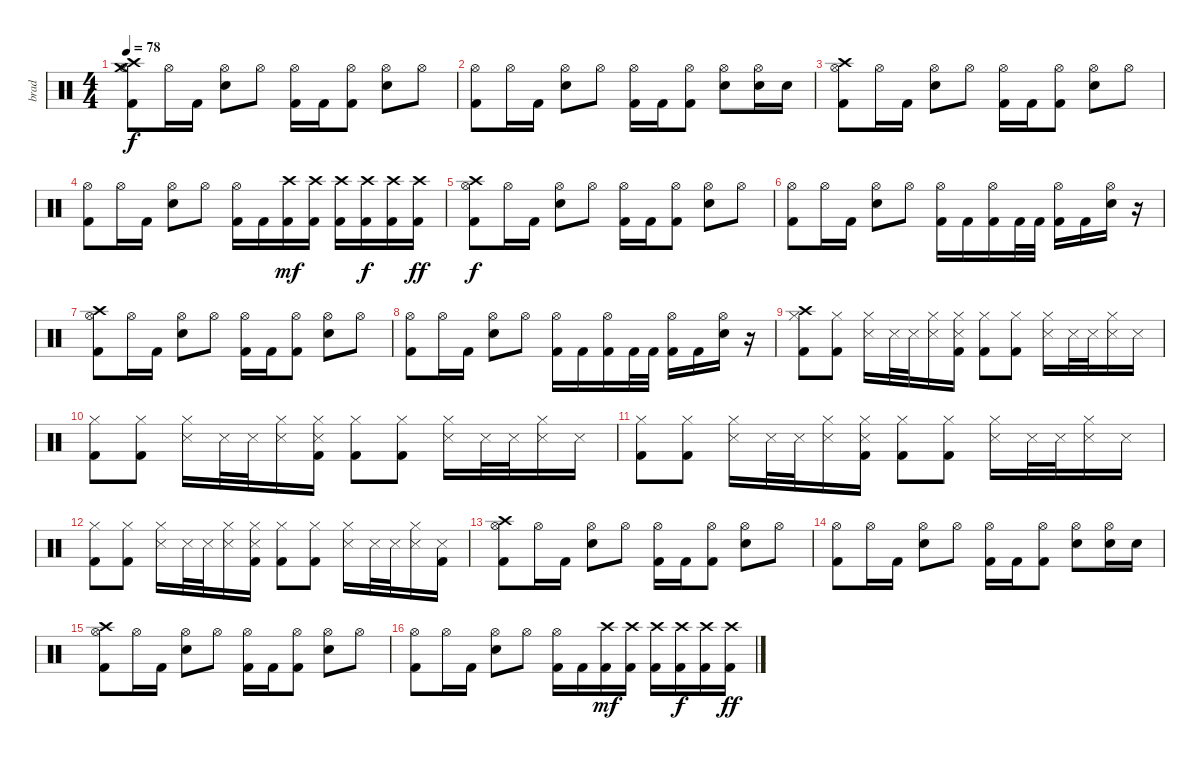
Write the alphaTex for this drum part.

\track ("brad" "brad") {instrument percussion}
\staff {score}
\articulation defaults
\ts (4 4)
\tempo 78
\clef neutral
\ks c
("Crash medium (hit)" "Crash high (hit)" "Hi-Hat (open)" "Kick (hit) 2").8{dy f} "Hi-Hat (open)".16 "Kick (hit) 2".16 ("Hi-Hat (open)" "Electric Snare (hit)").8 "Hi-Hat (open)".8 ("Hi-Hat (open)" "Kick (hit) 2").16 "Kick (hit) 2".16 ("Hi-Hat (open)" "Kick (hit) 2").8 ("Hi-Hat (open)" "Electric Snare (hit)").8 "Hi-Hat (open)".8 |
("Hi-Hat (open)" "Kick (hit) 2").8 "Hi-Hat (open)".16 "Kick (hit) 2".16 ("Hi-Hat (open)" "Electric Snare (hit)").8 "Hi-Hat (open)".8 ("Hi-Hat (open)" "Kick (hit) 2").16 "Kick (hit) 2".16 ("Hi-Hat (open)" "Kick (hit) 2").8 ("Hi-Hat (open)" "Electric Snare (hit)").8 ("Hi-Hat (open)" "Electric Snare (hit)").16 "Electric Snare (hit)".16 |
("Crash high (hit)" "Hi-Hat (open)" "Kick (hit) 2").8 "Hi-Hat (open)".16 "Kick (hit) 2".16 ("Hi-Hat (open)" "Electric Snare (hit)").8 "Hi-Hat (open)".8 ("Hi-Hat (open)" "Kick (hit) 2").16 "Kick (hit) 2".16 ("Hi-Hat (open)" "Kick (hit) 2").8 ("Hi-Hat (open)" "Electric Snare (hit)").8 "Hi-Hat (open)".8 |
("Hi-Hat (open)" "Kick (hit) 2").8 "Hi-Hat (open)".16 "Kick (hit) 2".16 ("Hi-Hat (open)" "Electric Snare (hit)").8 "Hi-Hat (open)".8 ("Hi-Hat (open)" "Kick (hit) 2").16 "Kick (hit) 2".16 ("Crash high (hit)" "Kick (hit) 2").16{dy mf} ("Crash high (hit)" "Kick (hit) 2").16 ("Crash high (hit)" "Kick (hit) 2").16 ("Crash high (hit)" "Kick (hit) 2").16{dy f} ("Crash high (hit)" "Kick (hit) 2").16 ("Crash high (hit)" "Kick (hit) 2").16{dy ff} |
("Crash high (hit)" "Hi-Hat (open)" "Kick (hit) 2").8{dy f} "Hi-Hat (open)".16 "Kick (hit) 2".16 ("Hi-Hat (open)" "Electric Snare (hit)").8 "Hi-Hat (open)".8 ("Hi-Hat (open)" "Kick (hit) 2").16 "Kick (hit) 2".16 ("Hi-Hat (open)" "Kick (hit) 2").8 ("Hi-Hat (open)" "Electric Snare (hit)").8 "Hi-Hat (open)".8 |
("Hi-Hat (open)" "Kick (hit) 2").8 "Hi-Hat (open)".16 "Kick (hit) 2".16 ("Hi-Hat (open)" "Electric Snare (hit)").8 "Hi-Hat (open)".8 ("Hi-Hat (open)" "Kick (hit) 2").16 "Kick (hit) 2".16 ("Hi-Hat (open)" "Kick (hit) 2").16 "Kick (hit) 2".32 "Kick (hit) 2".32 ("Hi-Hat (open)" "Kick (hit) 2").16 "Kick (hit) 2".16 ("Hi-Hat (open)" "Electric Snare (hit)").16 r.16 |
("Crash high (hit)" "Hi-Hat (open)" "Kick (hit) 2").8 "Hi-Hat (open)".16 "Kick (hit) 2".16 ("Hi-Hat (open)" "Electric Snare (hit)").8 "Hi-Hat (open)".8 ("Hi-Hat (open)" "Kick (hit) 2").16 "Kick (hit) 2".16 ("Hi-Hat (open)" "Kick (hit) 2").8 ("Hi-Hat (open)" "Electric Snare (hit)").8 "Hi-Hat (open)".8 |
("Hi-Hat (open)" "Kick (hit) 2").8 "Hi-Hat (open)".16 "Kick (hit) 2".16 ("Hi-Hat (open)" "Electric Snare (hit)").8 "Hi-Hat (open)".8 ("Hi-Hat (open)" "Kick (hit) 2").16 "Kick (hit) 2".16 ("Hi-Hat (open)" "Kick (hit) 2").16 "Kick (hit) 2".32 "Kick (hit) 2".32 ("Hi-Hat (open)" "Kick (hit) 2").16 "Kick (hit) 2".16 ("Hi-Hat (open)" "Electric Snare (hit)").16 r.16 |
("Crash high (hit)" "Hi-Hat (closed)" "Kick (hit) 2").8 ("Hi-Hat (closed)" "Kick (hit) 2").8 ("Hi-Hat (closed)" "Snare (side stick) 3").16 "Snare (side stick) 3".32 "Snare (side stick) 3".32 ("Hi-Hat (closed)" "Snare (side stick) 3").16 ("Hi-Hat (closed)" "Snare (side stick) 3" "Kick (hit) 2").16 ("Hi-Hat (closed)" "Kick (hit) 2").8 ("Hi-Hat (closed)" "Kick (hit) 2").8 ("Hi-Hat (closed)" "Snare (side stick) 3").16 "Snare (side stick) 3".32 "Snare (side stick) 3".32 ("Hi-Hat (closed)" "Snare (side stick) 3").16 "Snare (side stick) 3".16 |
("Hi-Hat (closed)" "Kick (hit) 2").8 ("Hi-Hat (closed)" "Kick (hit) 2").8 ("Hi-Hat (closed)" "Snare (side stick) 3").16 "Snare (side stick) 3".32 "Snare (side stick) 3".32 ("Hi-Hat (closed)" "Snare (side stick) 3").16 ("Hi-Hat (closed)" "Snare (side stick) 3" "Kick (hit) 2").16 ("Hi-Hat (closed)" "Kick (hit) 2").8 ("Hi-Hat (closed)" "Kick (hit) 2").8 ("Hi-Hat (closed)" "Snare (side stick) 3").16 "Snare (side stick) 3".32 "Snare (side stick) 3".32 ("Hi-Hat (closed)" "Snare (side stick) 3").16 "Snare (side stick) 3".16 |
("Hi-Hat (closed)" "Kick (hit) 2").8 ("Hi-Hat (closed)" "Kick (hit) 2").8 ("Hi-Hat (closed)" "Snare (side stick) 3").16 "Snare (side stick) 3".32 "Snare (side stick) 3".32 ("Hi-Hat (closed)" "Snare (side stick) 3").16 ("Hi-Hat (closed)" "Snare (side stick) 3" "Kick (hit) 2").16 ("Hi-Hat (closed)" "Kick (hit) 2").8 ("Hi-Hat (closed)" "Kick (hit) 2").8 ("Hi-Hat (closed)" "Snare (side stick) 3").16 "Snare (side stick) 3".32 "Snare (side stick) 3".32 ("Hi-Hat (closed)" "Snare (side stick) 3").16 "Snare (side stick) 3".16 |
("Hi-Hat (closed)" "Kick (hit) 2").8 ("Hi-Hat (closed)" "Kick (hit) 2").8 ("Hi-Hat (closed)" "Snare (side stick) 3").16 "Snare (side stick) 3".32 "Snare (side stick) 3".32 ("Hi-Hat (closed)" "Snare (side stick) 3").16 ("Hi-Hat (closed)" "Snare (side stick) 3" "Kick (hit) 2").16 ("Hi-Hat (closed)" "Kick (hit) 2").8 ("Hi-Hat (closed)" "Kick (hit) 2").8 ("Hi-Hat (closed)" "Snare (side stick) 3").16 "Snare (side stick) 3".32 "Snare (side stick) 3".32 ("Hi-Hat (closed)" "Snare (side stick) 3").16 ("Snare (side stick) 3" "Kick (hit) 2").16 |
("Crash high (hit)" "Hi-Hat (open)" "Kick (hit) 2").8 "Hi-Hat (open)".16 "Kick (hit) 2".16 ("Hi-Hat (open)" "Electric Snare (hit)").8 "Hi-Hat (open)".8 ("Hi-Hat (open)" "Kick (hit) 2").16 "Kick (hit) 2".16 ("Hi-Hat (open)" "Kick (hit) 2").8 ("Hi-Hat (open)" "Electric Snare (hit)").8 "Hi-Hat (open)".8 |
("Hi-Hat (open)" "Kick (hit) 2").8 "Hi-Hat (open)".16 "Kick (hit) 2".16 ("Hi-Hat (open)" "Electric Snare (hit)").8 "Hi-Hat (open)".8 ("Hi-Hat (open)" "Kick (hit) 2").16 "Kick (hit) 2".16 ("Hi-Hat (open)" "Kick (hit) 2").8 ("Hi-Hat (open)" "Electric Snare (hit)").8 ("Hi-Hat (open)" "Electric Snare (hit)").16 "Electric Snare (hit)".16 |
("Crash high (hit)" "Hi-Hat (open)" "Kick (hit) 2").8 "Hi-Hat (open)".16 "Kick (hit) 2".16 ("Hi-Hat (open)" "Electric Snare (hit)").8 "Hi-Hat (open)".8 ("Hi-Hat (open)" "Kick (hit) 2").16 "Kick (hit) 2".16 ("Hi-Hat (open)" "Kick (hit) 2").8 ("Hi-Hat (open)" "Electric Snare (hit)").8 "Hi-Hat (open)".8 |
("Hi-Hat (open)" "Kick (hit) 2").8 "Hi-Hat (open)".16 "Kick (hit) 2".16 ("Hi-Hat (open)" "Electric Snare (hit)").8 "Hi-Hat (open)".8 ("Hi-Hat (open)" "Kick (hit) 2").16 "Kick (hit) 2".16 ("Crash high (hit)" "Kick (hit) 2").16{dy mf} ("Crash high (hit)" "Kick (hit) 2").16 ("Crash high (hit)" "Kick (hit) 2").16 ("Crash high (hit)" "Kick (hit) 2").16{dy f} ("Crash high (hit)" "Kick (hit) 2").16 ("Crash high (hit)" "Kick (hit) 2").16{dy ff}
